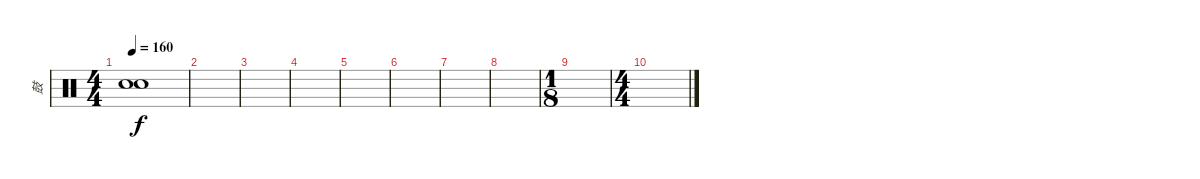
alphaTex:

\track ("鼓" "鼓") {instrument percussion}
\staff {score}
\articulation defaults
\ts (4 4)
\tempo 160
\clef neutral
\ks c
("Snare (hit)"{t} "Snare (hit)"{t}).1{dy f} |
|
|
|
|
|
|
|
\ts (1 8)
|
\ts (4 4)
